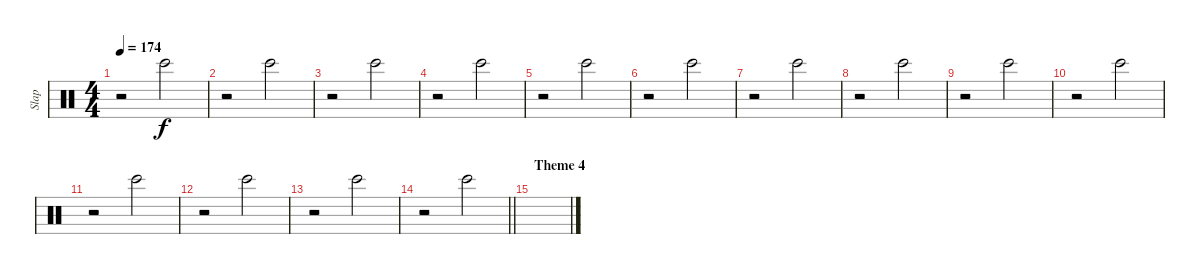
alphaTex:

\track ("Slap" "Slap") {instrument percussion}
\staff {score}
\articulation defaults
\ts (4 4)
\tempo 174
\clef neutral
\ks c
r.2{dy f} "Bongo High (hit)".2 |
r.2 "Bongo High (hit)".2 |
r.2 "Bongo High (hit)".2 |
r.2 "Bongo High (hit)".2 |
r.2 "Bongo High (hit)".2 |
r.2 "Bongo High (hit)".2 |
r.2 "Bongo High (hit)".2 |
r.2 "Bongo High (hit)".2 |
r.2 "Bongo High (hit)".2 |
r.2 "Bongo High (hit)".2 |
r.2 "Bongo High (hit)".2 |
r.2 "Bongo High (hit)".2 |
r.2 "Bongo High (hit)".2 |
\barLineRight lightlight
r.2 "Bongo High (hit)".2 |
\section ("" "Theme 4")
